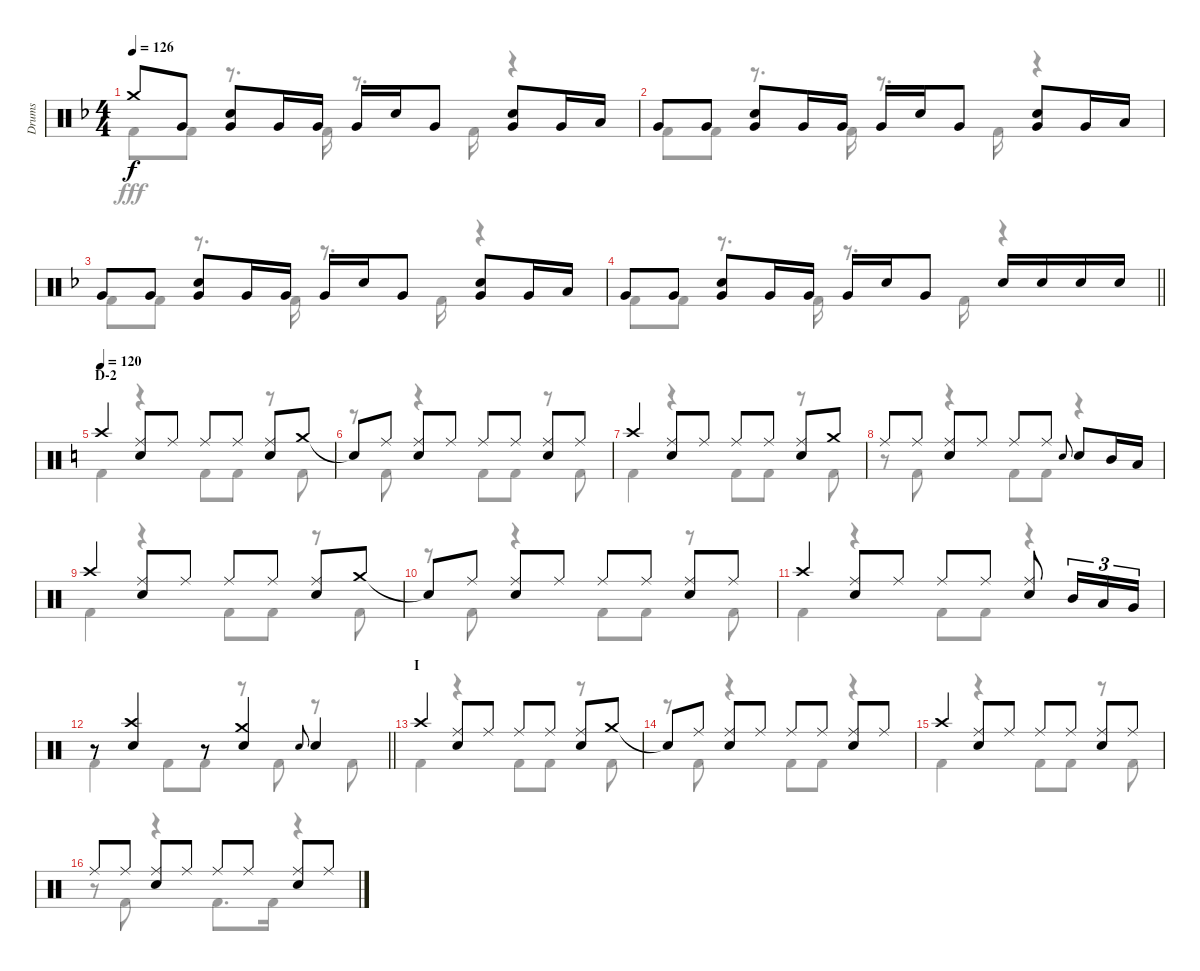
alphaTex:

\track ("Drums" "Drums") {instrument percussion}
\staff {score}
\articulation defaults
\voice
\ts (4 4)
\tempo 126
\clef neutral
\ks f "Crash medium (hit)".8{dy f} "Very Low Tom (hit)".8
("Snare (hit) 2" "Very Low Tom (hit)").8 "Very Low Tom (hit)".16 "Very Low Tom (hit)".16 "Very Low Tom (hit)".16 "Snare (hit) 2".16 "Very Low Tom (hit)".8 ("Snare (hit) 2" "Very Low Tom (hit)").8 "Very Low Tom (hit)".16 "Low Tom (hit)".16 |
"Very Low Tom (hit)".8 "Very Low Tom (hit)".8 ("Snare (hit) 2" "Very Low Tom (hit)").8 "Very Low Tom (hit)".16 "Very Low Tom (hit)".16 "Very Low Tom (hit)".16 "Snare (hit) 2".16 "Very Low Tom (hit)".8 ("Snare (hit) 2" "Very Low Tom (hit)").8 "Very Low Tom (hit)".16 "Low Tom (hit)".16 |
"Very Low Tom (hit)".8 "Very Low Tom (hit)".8 ("Snare (hit) 2" "Very Low Tom (hit)").8 "Very Low Tom (hit)".16 "Very Low Tom (hit)".16 "Very Low Tom (hit)".16 "Snare (hit) 2".16 "Very Low Tom (hit)".8 ("Snare (hit) 2" "Very Low Tom (hit)").8 "Very Low Tom (hit)".16 "Low Tom (hit)".16 |
\barLineRight lightlight "Very Low Tom (hit)".8 "Very Low Tom (hit)".8
("Snare (hit) 2" "Very Low Tom (hit)").8 "Very Low Tom (hit)".16 "Very Low Tom (hit)".16 "Very Low Tom (hit)".16 "Snare (hit) 2".16 "Very Low Tom (hit)".8 "Snare (hit) 2".16 "Snare (hit) 2".16 "Snare (hit) 2".16 "Snare (hit) 2".16 |
\section ("" "D-2")
\tempo 120
\ks c "Crash high (hit)".4
("Ride (middle)" "Snare (hit) 2").8 "Ride (middle)".8 "Ride (middle)".8 "Ride (middle)".8 ("Ride (middle)" "Snare (hit) 2").8 "Crash medium (hit)".8 |
"Snare (hit)"{t}.8 "Ride (middle)".8 ("Ride (middle)" "Snare (hit) 2").8 "Ride (middle)".8 "Ride (middle)".8 "Ride (middle)".8 ("Ride (middle)" "Snare (hit) 2").8 "Ride (middle)".8 |
"Crash high (hit)".4 ("Ride (middle)" "Snare (hit) 2").8 "Ride (middle)".8 "Ride (middle)".8 "Ride (middle)".8 ("Ride (middle)" "Snare (hit) 2").8 "Crash medium (hit)".8 |
"Ride (middle)".8 "Ride (middle)".8 ("Ride (middle)" "Snare (hit) 2").8 "Ride (middle)".8 "Ride (middle)".8 "Ride (middle)".8 "Snare (hit) 2".8{gr onbeat} "Snare (hit) 2".8 "Mid Tom (hit)".16 "Low Tom (hit)".16 |
"Crash high (hit)".4 ("Ride (middle)" "Snare (hit) 2").8 "Ride (middle)".8 "Ride (middle)".8 "Ride (middle)".8 ("Ride (middle)" "Snare (hit) 2").8 "Crash medium (hit)".8 |
"Snare (hit)"{t}.8 "Ride (middle)".8 ("Ride (middle)" "Snare (hit) 2").8 "Ride (middle)".8 "Ride (middle)".8 "Ride (middle)".8 ("Ride (middle)" "Snare (hit) 2").8 "Ride (middle)".8 |
"Crash high (hit)".4 ("Ride (middle)" "Snare (hit) 2").8 "Ride (middle)".8 "Ride (middle)".8 "Ride (middle)".8 ("Ride (middle)" "Snare (hit) 2").8 "Mid Tom (hit)".16{tu (3 2)} "Low Tom (hit)".16{tu (3 2)} "Very Low Tom (hit)".16{tu (3 2)} |
\barLineRight lightlight
r.8 ("Crash high (hit)" "Snare (hit) 2").4 r.8 ("Crash medium (hit)" "Snare (hit) 2").4 "Snare (hit) 2".8{gr onbeat} "Snare (hit) 2".4 |
\section ("" "I")
"Crash high (hit)".4 ("Ride (middle)" "Snare (hit) 2").8 "Ride (middle)".8 "Ride (middle)".8 "Ride (middle)".8 ("Ride (middle)" "Snare (hit) 2").8 "Crash medium (hit)".8 |
"Snare (hit)"{t}.8 "Ride (middle)".8 ("Ride (middle)" "Snare (hit) 2").8 "Ride (middle)".8 "Ride (middle)".8 "Ride (middle)".8 ("Ride (middle)" "Snare (hit) 2").8 "Ride (middle)".8 |
"Crash high (hit)".4 ("Ride (middle)" "Snare (hit) 2").8 "Ride (middle)".8 "Ride (middle)".8 "Ride (middle)".8 ("Ride (middle)" "Snare (hit) 2").8 "Ride (middle)".8 |
"Ride (middle)".8 "Ride (middle)".8 ("Ride (middle)" "Snare (hit) 2").8 "Ride (middle)".8 "Ride (middle)".8 "Ride (middle)".8 ("Ride (middle)" "Snare (hit) 2").8 "Ride (middle)".8
\voice
\clef neutral
\ottava regular
\simile none
\ks f "Kick (hit) 2".8{dy fff} "Kick (hit) 2".8
r.8{d} "Kick (hit) 2".16 r.8{d} "Kick (hit) 2".16 r.4 |
"Kick (hit) 2".8 "Kick (hit) 2".8 r.8{d} "Kick (hit) 2".16 r.8{d} "Kick (hit) 2".16 r.4 |
"Kick (hit) 2".8 "Kick (hit) 2".8 r.8{d} "Kick (hit) 2".16 r.8{d} "Kick (hit) 2".16 r.4 |
\barLineRight lightlight "Kick (hit) 2".8 "Kick (hit) 2".8
r.8{d} "Kick (hit) 2".16 r.8{d} "Kick (hit) 2".16 r.4 |
\ks c "Kick (hit) 2".4
r.4 "Kick (hit) 2".8 "Kick (hit) 2".8 r.8 "Kick (hit) 2".8 |
r.8 "Kick (hit) 2".8 r.4 "Kick (hit) 2".8 "Kick (hit) 2".8 r.8 "Kick (hit) 2".8 |
"Kick (hit) 2".4 r.4 "Kick (hit) 2".8 "Kick (hit) 2".8 r.8 "Kick (hit) 2".8 |
r.8 "Kick (hit) 2".8 r.4 "Kick (hit) 2".8 "Kick (hit) 2".8 r.4 |
"Kick (hit) 2".4 r.4 "Kick (hit) 2".8 "Kick (hit) 2".8 r.8 "Kick (hit) 2".8 |
r.8 "Kick (hit) 2".8 r.4 "Kick (hit) 2".8 "Kick (hit) 2".8 r.8 "Kick (hit) 2".8 |
"Kick (hit) 2".4 r.4 "Kick (hit) 2".8 "Kick (hit) 2".8 r.4 |
\barLineRight lightlight "Kick (hit) 2".4 "Kick (hit) 2".8 "Kick (hit) 2".8
r.8 "Kick (hit) 2".8 r.8 "Kick (hit) 2".8 |
"Kick (hit) 2".4 r.4 "Kick (hit) 2".8 "Kick (hit) 2".8 r.8 "Kick (hit) 2".8 |
r.8 "Kick (hit) 2".8 r.4 "Kick (hit) 2".8 "Kick (hit) 2".8 r.4 |
"Kick (hit) 2".4 r.4 "Kick (hit) 2".8 "Kick (hit) 2".8 r.8 "Kick (hit) 2".8 |
r.8 "Kick (hit) 2".8 r.4 "Kick (hit) 2".8{d} "Kick (hit) 2".16 r.4
